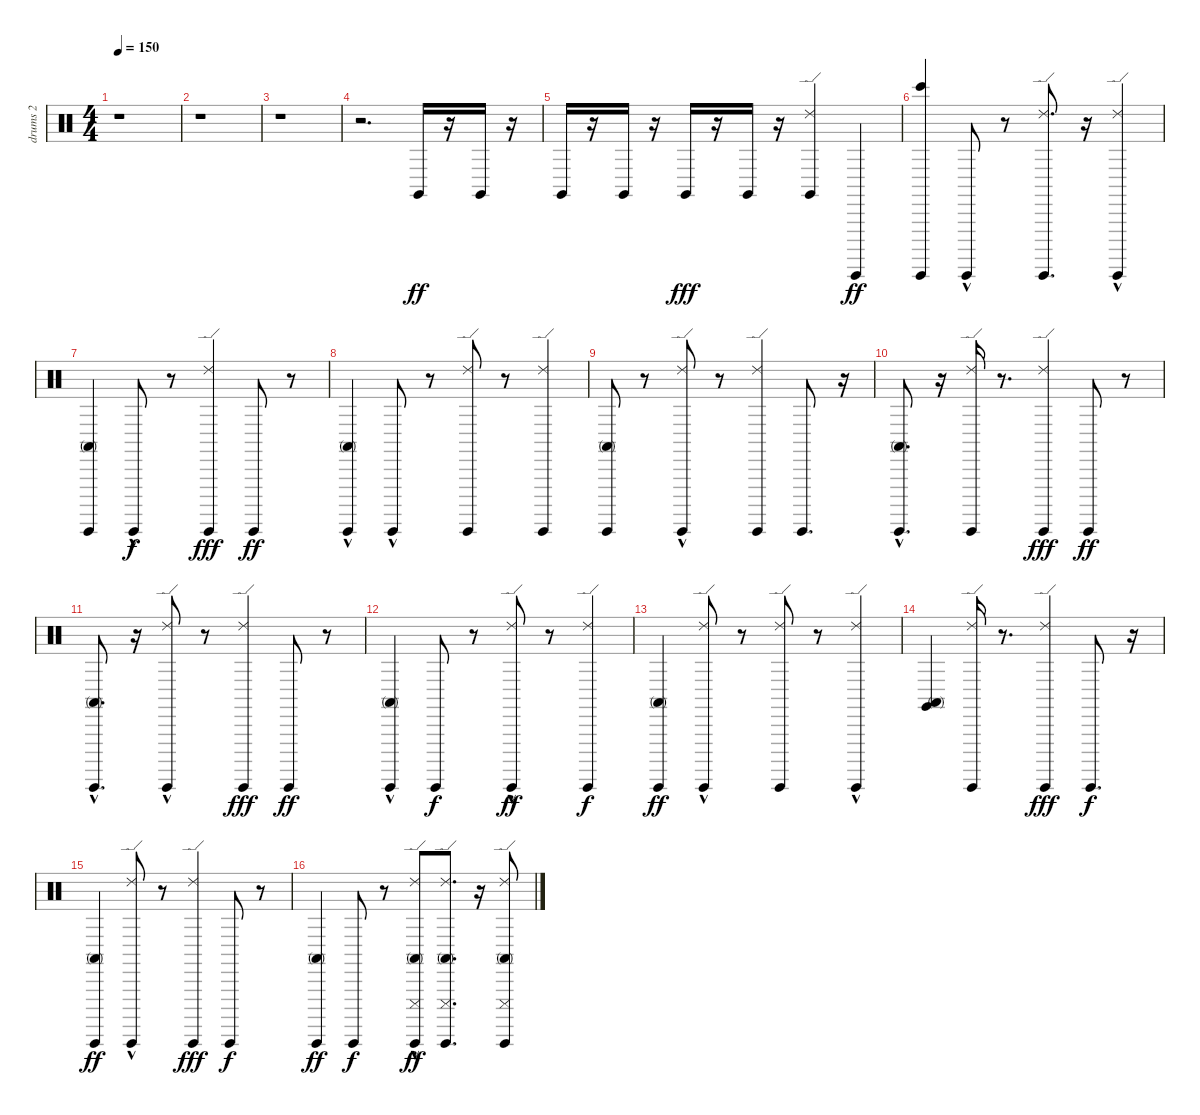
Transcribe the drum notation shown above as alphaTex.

\track ("drums 2" "drums 2") {instrument percussion}
\staff {score}
\articulation defaults
\ts (4 4)
\tempo 150
\clef neutral
\ks c
r.1{dy ff} |
r.1 |
r.1 |
r.2{d} "Claves (hit)".16 r.16 "Claves (hit)".16 r.16 |
"Claves (hit)".16 r.16 "Claves (hit)".16 r.16 "Claves (hit)".16{dy fff} r.16 "Claves (hit)".16 r.16 ("Claves (hit)" "Ride (edge) 2").4 "Guiro (hit)".4{dy ff} |
("Bongo High (hit)" "Guiro (hit)").4 "Guiro (hit)"{hac}.8 r.8 ("Ride (edge) 2" "Guiro (hit)").8{d} r.16 ("Ride (edge) 2" "Guiro (hit)"{hac}).4 |
("Conga high (mute)" "Guiro (hit)").4 "Guiro (hit)"{hac}.8{dy f} r.8 ("Guiro (hit)" "Ride (edge) 2").4{dy fff} "Guiro (hit)".8{dy ff} r.8 |
("Conga high (mute)"{hac} "Guiro (hit)").4 "Guiro (hit)"{hac}.8 r.8 ("Guiro (hit)" "Ride (edge) 2").8 r.8 ("Ride (edge) 2" "Guiro (hit)").4 |
("Guiro (hit)" "Conga high (mute)").8 r.8 ("Guiro (hit)"{hac} "Ride (edge) 2"{hac}).8 r.8 ("Guiro (hit)" "Ride (edge) 2").4 "Guiro (hit)".8{d} r.16 |
("Guiro (hit)" "Conga high (mute)"{hac}).8{d} r.16 ("Guiro (hit)" "Ride (edge) 2").16 r.8{d} ("Guiro (hit)" "Ride (edge) 2").4{dy fff} "Guiro (hit)".8{dy ff} r.8 |
("Conga high (mute)"{hac} "Guiro (hit)").8{d} r.16 ("Guiro (hit)"{hac} "Ride (edge) 2").8 r.8 ("Guiro (hit)" "Ride (edge) 2").4{dy fff} "Guiro (hit)".8{dy ff} r.8 |
("Conga high (mute)"{hac} "Guiro (hit)").4 "Guiro (hit)".8{dy f} r.8 ("Guiro (hit)"{hac} "Ride (edge) 2").8{dy ff} r.8 ("Ride (edge) 2" "Guiro (hit)").4{dy f} |
("Guiro (hit)" "Conga high (mute)").4{dy ff} ("Ride (edge) 2"{hac} "Guiro (hit)"{hac}).8 r.8 ("Ride (edge) 2" "Guiro (hit)").8 r.8 ("Ride (edge) 2" "Guiro (hit)"{hac}).4 |
("Claves (hit)" "Conga high (mute)").4 ("Guiro (hit)" "Ride (edge) 2").16 r.8{d} ("Guiro (hit)" "Ride (edge) 2").4{dy fff} "Guiro (hit)".8{d dy f} r.16 |
("Guiro (hit)" "Conga high (mute)").4{dy ff} ("Guiro (hit)"{hac} "Ride (edge) 2").8 r.8 ("Guiro (hit)" "Ride (edge) 2").4{dy fff} "Guiro (hit)".8{dy f} r.8 |
("Conga high (mute)" "Guiro (hit)").4{dy ff} "Guiro (hit)".8{dy f} r.8 ("Guiro (hit)" "Cuica (mute)"{hac} "Conga high (mute)" "Ride (edge) 2").8{dy ff} ("Ride (edge) 2" "Conga high (mute)" "Guiro (hit)" "Cuica (mute)").8{d} r.16 ("Guiro (hit)" "Cuica (mute)" "Ride (edge) 2" "Conga high (mute)").8
